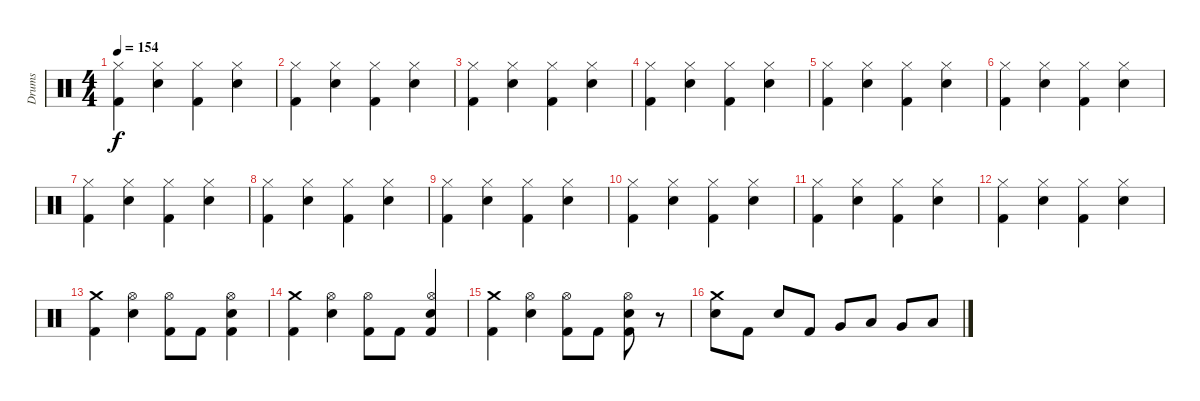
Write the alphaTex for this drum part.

\track ("Drums" "Drums") {instrument percussion}
\staff {score}
\articulation defaults
\ts (4 4)
\tempo 154
\clef neutral
\ks c
("Kick (hit) 2" "Hi-Hat (closed)").4{dy f} ("Electric Snare (hit)" "Hi-Hat (closed)").4 ("Kick (hit) 2" "Hi-Hat (closed)").4 ("Electric Snare (hit)" "Hi-Hat (closed)").4 |
("Kick (hit) 2" "Hi-Hat (closed)").4 ("Electric Snare (hit)" "Hi-Hat (closed)").4 ("Kick (hit) 2" "Hi-Hat (closed)").4 ("Electric Snare (hit)" "Hi-Hat (closed)").4 |
("Kick (hit) 2" "Hi-Hat (closed)").4 ("Electric Snare (hit)" "Hi-Hat (closed)").4 ("Kick (hit) 2" "Hi-Hat (closed)").4 ("Electric Snare (hit)" "Hi-Hat (closed)").4 |
("Kick (hit) 2" "Hi-Hat (closed)").4 ("Electric Snare (hit)" "Hi-Hat (closed)").4 ("Kick (hit) 2" "Hi-Hat (closed)").4 ("Electric Snare (hit)" "Hi-Hat (closed)").4 |
("Kick (hit) 2" "Hi-Hat (closed)").4 ("Electric Snare (hit)" "Hi-Hat (closed)").4 ("Kick (hit) 2" "Hi-Hat (closed)").4 ("Electric Snare (hit)" "Hi-Hat (closed)").4 |
("Kick (hit) 2" "Hi-Hat (closed)").4 ("Electric Snare (hit)" "Hi-Hat (closed)").4 ("Kick (hit) 2" "Hi-Hat (closed)").4 ("Electric Snare (hit)" "Hi-Hat (closed)").4 |
("Kick (hit) 2" "Hi-Hat (closed)").4 ("Electric Snare (hit)" "Hi-Hat (closed)").4 ("Kick (hit) 2" "Hi-Hat (closed)").4 ("Electric Snare (hit)" "Hi-Hat (closed)").4 |
("Kick (hit) 2" "Hi-Hat (closed)").4 ("Electric Snare (hit)" "Hi-Hat (closed)").4 ("Kick (hit) 2" "Hi-Hat (closed)").4 ("Electric Snare (hit)" "Hi-Hat (closed)").4 |
("Kick (hit) 2" "Hi-Hat (closed)").4 ("Electric Snare (hit)" "Hi-Hat (closed)").4 ("Kick (hit) 2" "Hi-Hat (closed)").4 ("Electric Snare (hit)" "Hi-Hat (closed)").4 |
("Kick (hit) 2" "Hi-Hat (closed)").4 ("Electric Snare (hit)" "Hi-Hat (closed)").4 ("Kick (hit) 2" "Hi-Hat (closed)").4 ("Electric Snare (hit)" "Hi-Hat (closed)").4 |
("Kick (hit) 2" "Hi-Hat (closed)").4 ("Electric Snare (hit)" "Hi-Hat (closed)").4 ("Kick (hit) 2" "Hi-Hat (closed)").4 ("Electric Snare (hit)" "Hi-Hat (closed)").4 |
("Kick (hit) 2" "Hi-Hat (closed)").4 ("Electric Snare (hit)" "Hi-Hat (closed)").4 ("Kick (hit) 2" "Hi-Hat (closed)").4 ("Electric Snare (hit)" "Hi-Hat (closed)").4 |
("Kick (hit) 2" "Crash medium (hit)").4 ("Electric Snare (hit)" "Hi-Hat (open)").4 ("Kick (hit) 2" "Hi-Hat (open)").8 "Kick (hit) 2".8 ("Electric Snare (hit)" "Hi-Hat (open)" "Kick (hit) 2").4 |
("Kick (hit) 2" "Crash medium (hit)").4 ("Electric Snare (hit)" "Hi-Hat (open)").4 ("Kick (hit) 2" "Hi-Hat (open)").8 "Kick (hit) 2".8 ("Snare (hit) 2" "Hi-Hat (open)" "Kick (hit) 2").4 |
("Kick (hit) 2" "Crash medium (hit)").4 ("Electric Snare (hit)" "Hi-Hat (open)").4 ("Kick (hit) 2" "Hi-Hat (open)").8 "Kick (hit) 2".8 ("Electric Snare (hit)" "Hi-Hat (open)" "Kick (hit) 2").8 r.8 |
("Crash medium (hit)" "Electric Snare (hit)").8 "Kick (hit) 2".8 "Electric Snare (hit)".8 "Kick (hit) 2".8 "Very Low Tom (hit)".8 "Low Tom (hit)".8 "Very Low Tom (hit)".8 "Low Floor Tom (hit)".8
